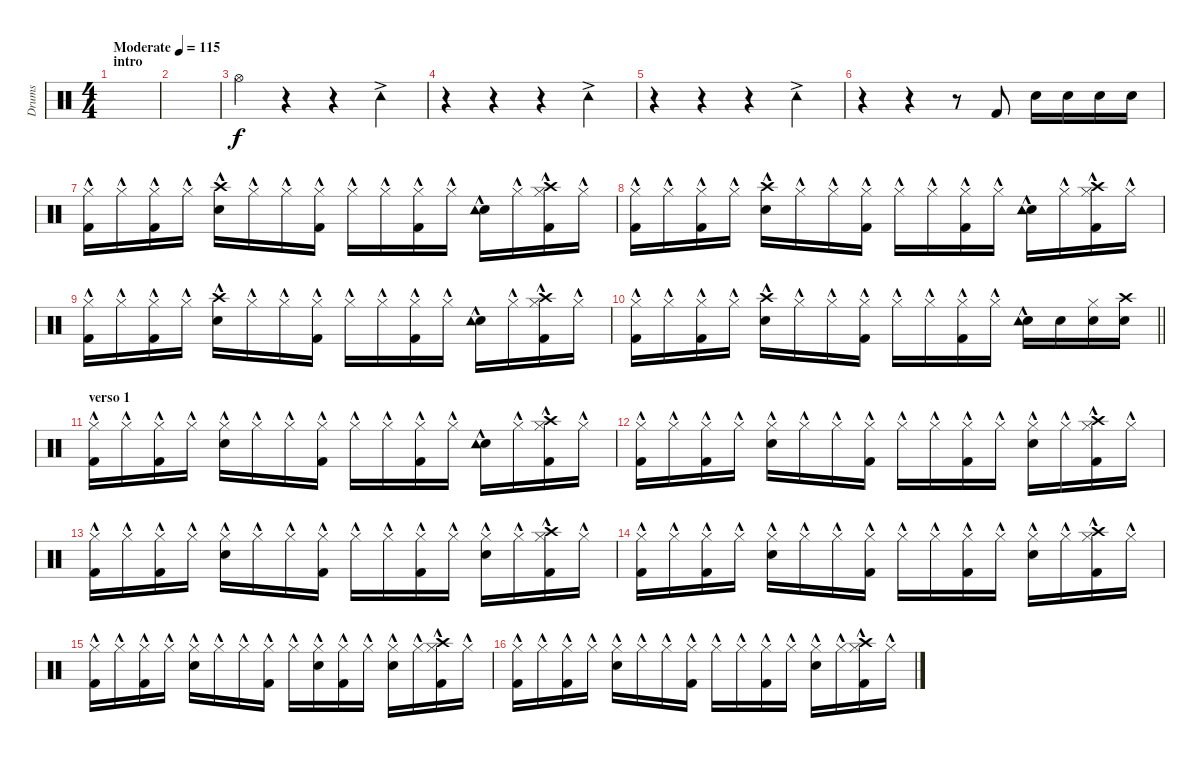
\track ("Drums" "Drums") {instrument percussion}
\staff {score}
\articulation defaults
\ts (4 4)
\section ("" "intro")
\tempo (115 "Moderate")
\clef neutral
\ks c
|
|
"Hi-Hat (open)".4 r.4 r.4 "Tambourine (hit)"{ac}.4 |
r.4 r.4 r.4 "Tambourine (hit)"{ac}.4 |
r.4 r.4 r.4 "Tambourine (hit)"{ac}.4 |
r.4 r.4 r.8 "Kick (hit) 2".8 "Electric Snare (hit)".16 "Electric Snare (hit)".16 "Electric Snare (hit)".16 "Electric Snare (hit)".16 |
("Kick (hit) 2"{hac} "Hi-Hat (closed)"{hac}).16 "Hi-Hat (closed)"{hac}.16 ("Kick (hit) 2"{hac} "Hi-Hat (closed)"{hac}).16 "Hi-Hat (closed)"{hac}.16 ("Electric Snare (hit)"{hac} "Crash high (hit)"{hac}).16 "Hi-Hat (closed)"{hac}.16 "Hi-Hat (closed)"{hac}.16 ("Kick (hit) 2" "Hi-Hat (closed)"{hac}).16 "Hi-Hat (closed)"{hac}.16 "Hi-Hat (closed)"{hac}.16 ("Kick (hit) 2" "Hi-Hat (closed)"{hac}).16 "Hi-Hat (closed)"{hac}.16 ("Electric Snare (hit)" "Tambourine (hit)"{hac}).16 "Hi-Hat (closed)"{hac}.16 ("Crash high (hit)" "Kick (hit) 2" "Hi-Hat (closed)"{hac}).16 "Hi-Hat (closed)"{hac}.16 |
("Kick (hit) 2"{hac} "Hi-Hat (closed)"{hac}).16 "Hi-Hat (closed)"{hac}.16 ("Kick (hit) 2"{hac} "Hi-Hat (closed)"{hac}).16 "Hi-Hat (closed)"{hac}.16 ("Electric Snare (hit)"{hac} "Crash high (hit)"{hac}).16 "Hi-Hat (closed)"{hac}.16 "Hi-Hat (closed)"{hac}.16 ("Kick (hit) 2" "Hi-Hat (closed)"{hac}).16 "Hi-Hat (closed)"{hac}.16 "Hi-Hat (closed)"{hac}.16 ("Kick (hit) 2" "Hi-Hat (closed)"{hac}).16 "Hi-Hat (closed)"{hac}.16 ("Electric Snare (hit)" "Tambourine (hit)"{hac}).16 "Hi-Hat (closed)"{hac}.16 ("Crash high (hit)" "Kick (hit) 2" "Hi-Hat (closed)"{hac}).16 "Hi-Hat (closed)"{hac}.16 |
("Kick (hit) 2"{hac} "Hi-Hat (closed)"{hac}).16 "Hi-Hat (closed)"{hac}.16 ("Kick (hit) 2"{hac} "Hi-Hat (closed)"{hac}).16 "Hi-Hat (closed)"{hac}.16 ("Electric Snare (hit)"{hac} "Crash high (hit)"{hac}).16 "Hi-Hat (closed)"{hac}.16 "Hi-Hat (closed)"{hac}.16 ("Kick (hit) 2" "Hi-Hat (closed)"{hac}).16 "Hi-Hat (closed)"{hac}.16 "Hi-Hat (closed)"{hac}.16 ("Kick (hit) 2" "Hi-Hat (closed)"{hac}).16 "Hi-Hat (closed)"{hac}.16 ("Electric Snare (hit)" "Tambourine (hit)"{hac}).16 "Hi-Hat (closed)"{hac}.16 ("Crash high (hit)" "Kick (hit) 2" "Hi-Hat (closed)"{hac}).16 "Hi-Hat (closed)"{hac}.16 |
\barLineRight lightlight
("Kick (hit) 2"{hac} "Hi-Hat (closed)"{hac}).16 "Hi-Hat (closed)"{hac}.16 ("Kick (hit) 2"{hac} "Hi-Hat (closed)"{hac}).16 "Hi-Hat (closed)"{hac}.16 ("Electric Snare (hit)"{hac} "Crash high (hit)"{hac}).16 "Hi-Hat (closed)"{hac}.16 "Hi-Hat (closed)"{hac}.16 ("Kick (hit) 2" "Hi-Hat (closed)"{hac}).16 "Hi-Hat (closed)"{hac}.16 "Hi-Hat (closed)"{hac}.16 ("Kick (hit) 2" "Hi-Hat (closed)"{hac}).16 "Hi-Hat (closed)"{hac}.16 ("Electric Snare (hit)" "Tambourine (hit)"{hac}).16 "Electric Snare (hit)".16 ("Electric Snare (hit)" "Hi-Hat (closed)").16 ("Electric Snare (hit)" "Crash high (hit)").16 |
\section ("" "verso 1")
("Kick (hit) 2"{hac} "Hi-Hat (closed)"{hac}).16 "Hi-Hat (closed)"{hac}.16 ("Kick (hit) 2"{hac} "Hi-Hat (closed)"{hac}).16 "Hi-Hat (closed)"{hac}.16 ("Electric Snare (hit)"{hac} "Hi-Hat (closed)"{hac}).16 "Hi-Hat (closed)"{hac}.16 "Hi-Hat (closed)"{hac}.16 ("Kick (hit) 2" "Hi-Hat (closed)"{hac}).16 "Hi-Hat (closed)"{hac}.16 "Hi-Hat (closed)"{hac}.16 ("Kick (hit) 2" "Hi-Hat (closed)"{hac}).16 "Hi-Hat (closed)"{hac}.16 ("Electric Snare (hit)" "Tambourine (hit)"{hac}).16 "Hi-Hat (closed)"{hac}.16 ("Crash high (hit)" "Kick (hit) 2" "Hi-Hat (closed)"{hac}).16 "Hi-Hat (closed)"{hac}.16 |
("Kick (hit) 2"{hac} "Hi-Hat (closed)").16 "Hi-Hat (closed)"{hac}.16 ("Kick (hit) 2"{hac} "Hi-Hat (closed)").16 "Hi-Hat (closed)"{hac}.16 ("Electric Snare (hit)"{hac} "Hi-Hat (closed)").16 "Hi-Hat (closed)"{hac}.16 "Hi-Hat (closed)"{hac}.16 ("Kick (hit) 2" "Hi-Hat (closed)"{hac}).16 "Hi-Hat (closed)"{hac}.16 "Hi-Hat (closed)"{hac}.16 ("Kick (hit) 2" "Hi-Hat (closed)"{hac}).16 "Hi-Hat (closed)"{hac}.16 ("Electric Snare (hit)" "Hi-Hat (closed)"{hac}).16 "Hi-Hat (closed)"{hac}.16 ("Crash high (hit)" "Kick (hit) 2" "Hi-Hat (closed)"{hac}).16 "Hi-Hat (closed)"{hac}.16 |
("Kick (hit) 2"{hac} "Hi-Hat (closed)").16 "Hi-Hat (closed)"{hac}.16 ("Kick (hit) 2"{hac} "Hi-Hat (closed)").16 "Hi-Hat (closed)"{hac}.16 ("Electric Snare (hit)"{hac} "Hi-Hat (closed)").16 "Hi-Hat (closed)"{hac}.16 "Hi-Hat (closed)"{hac}.16 ("Kick (hit) 2" "Hi-Hat (closed)"{hac}).16 "Hi-Hat (closed)"{hac}.16 "Hi-Hat (closed)"{hac}.16 ("Kick (hit) 2" "Hi-Hat (closed)"{hac}).16 "Hi-Hat (closed)"{hac}.16 ("Electric Snare (hit)" "Hi-Hat (closed)"{hac}).16 "Hi-Hat (closed)"{hac}.16 ("Crash high (hit)" "Kick (hit) 2" "Hi-Hat (closed)"{hac}).16 "Hi-Hat (closed)"{hac}.16 |
("Kick (hit) 2"{hac} "Hi-Hat (closed)").16 "Hi-Hat (closed)"{hac}.16 ("Kick (hit) 2"{hac} "Hi-Hat (closed)").16 "Hi-Hat (closed)"{hac}.16 ("Electric Snare (hit)"{hac} "Hi-Hat (closed)").16 "Hi-Hat (closed)"{hac}.16 "Hi-Hat (closed)"{hac}.16 ("Kick (hit) 2" "Hi-Hat (closed)"{hac}).16 "Hi-Hat (closed)"{hac}.16 "Hi-Hat (closed)"{hac}.16 ("Kick (hit) 2" "Hi-Hat (closed)"{hac}).16 "Hi-Hat (closed)"{hac}.16 ("Electric Snare (hit)" "Hi-Hat (closed)"{hac}).16 "Hi-Hat (closed)"{hac}.16 ("Crash high (hit)" "Kick (hit) 2" "Hi-Hat (closed)"{hac}).16 "Hi-Hat (closed)"{hac}.16 |
("Kick (hit) 2"{hac} "Hi-Hat (closed)").16 "Hi-Hat (closed)"{hac}.16 ("Kick (hit) 2"{hac} "Hi-Hat (closed)").16 "Hi-Hat (closed)"{hac}.16 ("Electric Snare (hit)"{hac} "Hi-Hat (closed)").16 "Hi-Hat (closed)"{hac}.16 "Hi-Hat (closed)"{hac}.16 ("Kick (hit) 2" "Hi-Hat (closed)"{hac}).16 "Hi-Hat (closed)"{hac}.16 ("Electric Snare (hit)" "Hi-Hat (closed)"{hac}).16 ("Kick (hit) 2" "Hi-Hat (closed)"{hac}).16 "Hi-Hat (closed)"{hac}.16 ("Electric Snare (hit)" "Hi-Hat (closed)"{hac}).16 "Hi-Hat (closed)"{hac}.16 ("Crash high (hit)" "Kick (hit) 2" "Hi-Hat (closed)"{hac}).16 "Hi-Hat (closed)"{hac}.16 |
("Kick (hit) 2"{hac} "Hi-Hat (closed)").16 "Hi-Hat (closed)"{hac}.16 ("Kick (hit) 2"{hac} "Hi-Hat (closed)").16 "Hi-Hat (closed)"{hac}.16 ("Electric Snare (hit)"{hac} "Hi-Hat (closed)").16 "Hi-Hat (closed)"{hac}.16 "Hi-Hat (closed)"{hac}.16 ("Kick (hit) 2" "Hi-Hat (closed)"{hac}).16 "Hi-Hat (closed)"{hac}.16 "Hi-Hat (closed)"{hac}.16 ("Kick (hit) 2" "Hi-Hat (closed)"{hac}).16 "Hi-Hat (closed)"{hac}.16 ("Electric Snare (hit)" "Hi-Hat (closed)"{hac}).16 "Hi-Hat (closed)"{hac}.16 ("Crash high (hit)" "Kick (hit) 2" "Hi-Hat (closed)"{hac}).16 "Hi-Hat (closed)"{hac}.16
